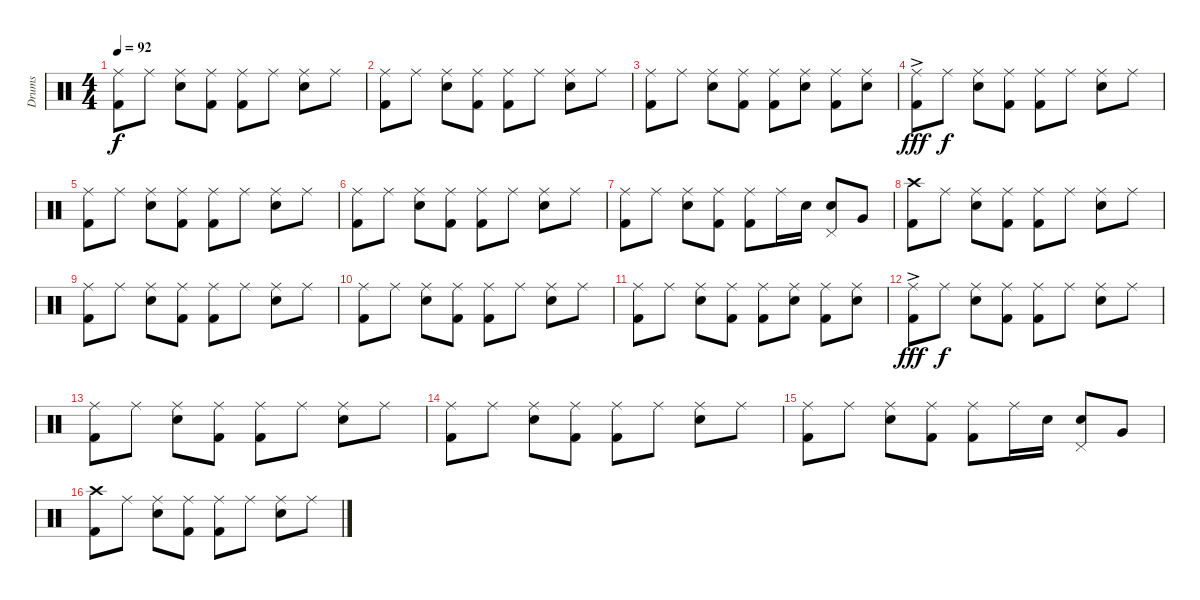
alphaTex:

\track ("Drums" "Drums") {instrument percussion}
\staff {score}
\articulation defaults
\ts (4 4)
\tempo 92
\clef neutral
\ks c
("Ride (middle)" "Kick (hit) 2").8{dy f} "Ride (middle)".8 ("Ride (middle)" "Snare (hit) 2").8 ("Ride (middle)" "Kick (hit) 2").8 ("Ride (middle)" "Kick (hit) 2").8 "Ride (middle)".8 ("Ride (middle)" "Snare (hit) 2").8 "Ride (middle)".8 |
("Ride (middle)" "Kick (hit) 2").8 "Ride (middle)".8 ("Ride (middle)" "Snare (hit) 2").8 ("Ride (middle)" "Kick (hit) 2").8 ("Ride (middle)" "Kick (hit) 2").8 "Ride (middle)".8 ("Ride (middle)" "Snare (hit) 2").8 "Ride (middle)".8 |
("Ride (middle)" "Kick (hit) 2").8 "Ride (middle)".8 ("Ride (middle)" "Snare (hit) 2").8 ("Ride (middle)" "Kick (hit) 2").8 ("Ride (middle)" "Kick (hit) 2").8 ("Ride (middle)" "Snare (hit) 2").8 ("Ride (middle)" "Kick (hit) 2").8 ("Ride (middle)" "Snare (hit) 2").8 |
("Ride (middle)"{ac} "Kick (hit) 2").8{dy fff} "Ride (middle)".8{dy f} ("Ride (middle)" "Snare (hit) 2").8 ("Ride (middle)" "Kick (hit) 2").8 ("Ride (middle)" "Kick (hit) 2").8 "Ride (middle)".8 ("Ride (middle)" "Snare (hit) 2").8 "Ride (middle)".8 |
("Ride (middle)" "Kick (hit) 2").8 "Ride (middle)".8 ("Ride (middle)" "Snare (hit) 2").8 ("Ride (middle)" "Kick (hit) 2").8 ("Ride (middle)" "Kick (hit) 2").8 "Ride (middle)".8 ("Ride (middle)" "Snare (hit) 2").8 "Ride (middle)".8 |
("Ride (middle)" "Kick (hit) 2").8 "Ride (middle)".8 ("Ride (middle)" "Snare (hit) 2").8 ("Ride (middle)" "Kick (hit) 2").8 ("Ride (middle)" "Kick (hit) 2").8 "Ride (middle)".8 ("Ride (middle)" "Snare (hit) 2").8 "Ride (middle)".8 |
("Ride (middle)" "Kick (hit) 2").8 "Ride (middle)".8 ("Ride (middle)" "Snare (hit) 2").8 ("Ride (middle)" "Kick (hit) 2").8 ("Ride (middle)" "Kick (hit) 2").8 "Ride (middle)".16 "Snare (hit) 2".16 ("Pedal Hi-Hat (hit)" "Snare (hit) 2").8 "Very Low Tom (hit)".8 |
("Crash high (hit)" "Kick (hit) 2").8 "Ride (middle)".8 ("Ride (middle)" "Snare (hit) 2").8 ("Ride (middle)" "Kick (hit) 2").8 ("Ride (middle)" "Kick (hit) 2").8 "Ride (middle)".8 ("Ride (middle)" "Snare (hit) 2").8 "Ride (middle)".8 |
("Ride (middle)" "Kick (hit) 2").8 "Ride (middle)".8 ("Ride (middle)" "Snare (hit) 2").8 ("Ride (middle)" "Kick (hit) 2").8 ("Ride (middle)" "Kick (hit) 2").8 "Ride (middle)".8 ("Ride (middle)" "Snare (hit) 2").8 "Ride (middle)".8 |
("Ride (middle)" "Kick (hit) 2").8 "Ride (middle)".8 ("Ride (middle)" "Snare (hit) 2").8 ("Ride (middle)" "Kick (hit) 2").8 ("Ride (middle)" "Kick (hit) 2").8 "Ride (middle)".8 ("Ride (middle)" "Snare (hit) 2").8 "Ride (middle)".8 |
("Ride (middle)" "Kick (hit) 2").8 "Ride (middle)".8 ("Ride (middle)" "Snare (hit) 2").8 ("Ride (middle)" "Kick (hit) 2").8 ("Ride (middle)" "Kick (hit) 2").8 ("Ride (middle)" "Snare (hit) 2").8 ("Ride (middle)" "Kick (hit) 2").8 ("Ride (middle)" "Snare (hit) 2").8 |
("Ride (middle)"{ac} "Kick (hit) 2").8{dy fff} "Ride (middle)".8{dy f} ("Ride (middle)" "Snare (hit) 2").8 ("Ride (middle)" "Kick (hit) 2").8 ("Ride (middle)" "Kick (hit) 2").8 "Ride (middle)".8 ("Ride (middle)" "Snare (hit) 2").8 "Ride (middle)".8 |
("Ride (middle)" "Kick (hit) 2").8 "Ride (middle)".8 ("Ride (middle)" "Snare (hit) 2").8 ("Ride (middle)" "Kick (hit) 2").8 ("Ride (middle)" "Kick (hit) 2").8 "Ride (middle)".8 ("Ride (middle)" "Snare (hit) 2").8 "Ride (middle)".8 |
("Ride (middle)" "Kick (hit) 2").8 "Ride (middle)".8 ("Ride (middle)" "Snare (hit) 2").8 ("Ride (middle)" "Kick (hit) 2").8 ("Ride (middle)" "Kick (hit) 2").8 "Ride (middle)".8 ("Ride (middle)" "Snare (hit) 2").8 "Ride (middle)".8 |
("Ride (middle)" "Kick (hit) 2").8 "Ride (middle)".8 ("Ride (middle)" "Snare (hit) 2").8 ("Ride (middle)" "Kick (hit) 2").8 ("Ride (middle)" "Kick (hit) 2").8 "Ride (middle)".16 "Snare (hit) 2".16 ("Pedal Hi-Hat (hit)" "Snare (hit) 2").8 "Very Low Tom (hit)".8 |
("Crash high (hit)" "Kick (hit) 2").8 "Ride (middle)".8 ("Ride (middle)" "Snare (hit) 2").8 ("Ride (middle)" "Kick (hit) 2").8 ("Ride (middle)" "Kick (hit) 2").8 "Ride (middle)".8 ("Ride (middle)" "Snare (hit) 2").8 "Ride (middle)".8
